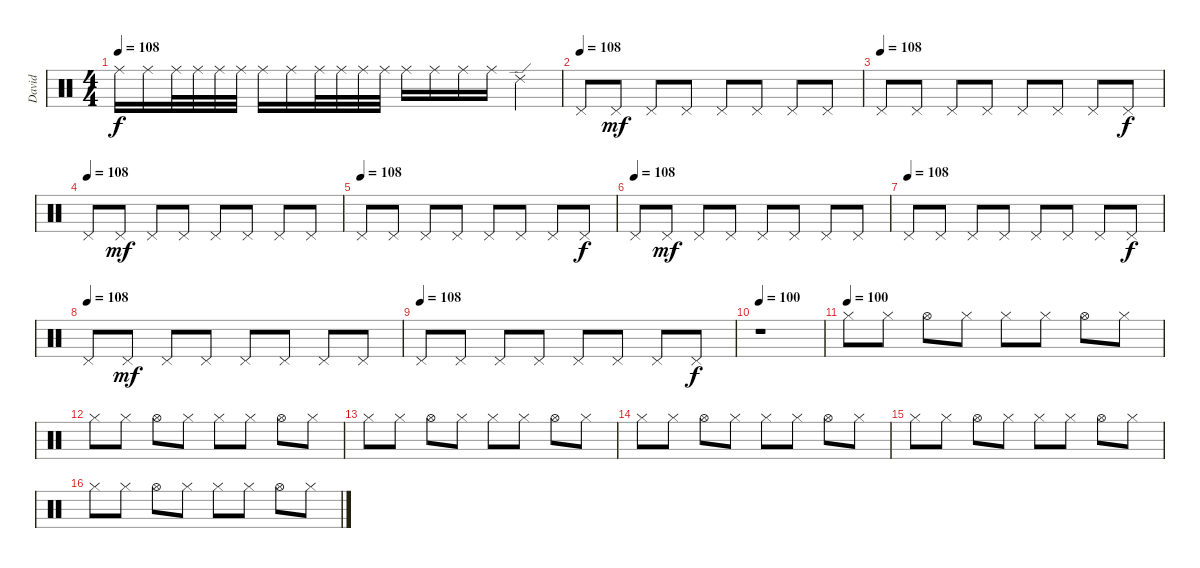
\track ("David" "David") {instrument percussion}
\staff {score}
\articulation defaults
\ts (4 4)
\tempo 108
\clef neutral
\ks c "Ride (middle)".16{dy f} "Ride (middle)".16 "Ride (middle)".32 "Ride (middle)".32 "Ride (middle)".32 "Ride (middle)".32 "Ride (middle)".16 "Ride (middle)".16 "Ride (middle)".32 "Ride (middle)".32 "Ride (middle)".32 "Ride (middle)".32 "Ride (middle)".16 "Ride (middle)".16 "Ride (middle)".16 "Ride (middle)".16 "Ride (edge) 2".4
|
\tempo (108)
"Pedal Hi-Hat (hit)".8 "Pedal Hi-Hat (hit)".8{dy mf} "Pedal Hi-Hat (hit)".8 "Pedal Hi-Hat (hit)".8 "Pedal Hi-Hat (hit)".8 "Pedal Hi-Hat (hit)".8 "Pedal Hi-Hat (hit)".8 "Pedal Hi-Hat (hit)".8 |
\tempo (108)
"Pedal Hi-Hat (hit)".8 "Pedal Hi-Hat (hit)".8 "Pedal Hi-Hat (hit)".8 "Pedal Hi-Hat (hit)".8 "Pedal Hi-Hat (hit)".8 "Pedal Hi-Hat (hit)".8 "Pedal Hi-Hat (hit)".8 "Pedal Hi-Hat (hit)".8{dy f} |
\tempo (108)
"Pedal Hi-Hat (hit)".8 "Pedal Hi-Hat (hit)".8{dy mf} "Pedal Hi-Hat (hit)".8 "Pedal Hi-Hat (hit)".8 "Pedal Hi-Hat (hit)".8 "Pedal Hi-Hat (hit)".8 "Pedal Hi-Hat (hit)".8 "Pedal Hi-Hat (hit)".8 |
\tempo (108)
"Pedal Hi-Hat (hit)".8 "Pedal Hi-Hat (hit)".8 "Pedal Hi-Hat (hit)".8 "Pedal Hi-Hat (hit)".8 "Pedal Hi-Hat (hit)".8 "Pedal Hi-Hat (hit)".8 "Pedal Hi-Hat (hit)".8 "Pedal Hi-Hat (hit)".8{dy f} |
\tempo (108)
"Pedal Hi-Hat (hit)".8 "Pedal Hi-Hat (hit)".8{dy mf} "Pedal Hi-Hat (hit)".8 "Pedal Hi-Hat (hit)".8 "Pedal Hi-Hat (hit)".8 "Pedal Hi-Hat (hit)".8 "Pedal Hi-Hat (hit)".8 "Pedal Hi-Hat (hit)".8 |
\tempo (108)
"Pedal Hi-Hat (hit)".8 "Pedal Hi-Hat (hit)".8 "Pedal Hi-Hat (hit)".8 "Pedal Hi-Hat (hit)".8 "Pedal Hi-Hat (hit)".8 "Pedal Hi-Hat (hit)".8 "Pedal Hi-Hat (hit)".8 "Pedal Hi-Hat (hit)".8{dy f} |
\tempo (108)
"Pedal Hi-Hat (hit)".8 "Pedal Hi-Hat (hit)".8{dy mf} "Pedal Hi-Hat (hit)".8 "Pedal Hi-Hat (hit)".8 "Pedal Hi-Hat (hit)".8 "Pedal Hi-Hat (hit)".8 "Pedal Hi-Hat (hit)".8 "Pedal Hi-Hat (hit)".8 |
\tempo (108)
"Pedal Hi-Hat (hit)".8 "Pedal Hi-Hat (hit)".8 "Pedal Hi-Hat (hit)".8 "Pedal Hi-Hat (hit)".8 "Pedal Hi-Hat (hit)".8 "Pedal Hi-Hat (hit)".8 "Pedal Hi-Hat (hit)".8 "Pedal Hi-Hat (hit)".8{dy f} |
\tempo 100
r.1 |
\tempo (100)
"Hi-Hat (closed)".8 "Hi-Hat (closed)".8 "Hi-Hat (open)".8 "Hi-Hat (closed)".8 "Hi-Hat (closed)".8 "Hi-Hat (closed)".8 "Hi-Hat (open)".8 "Hi-Hat (closed)".8 |
"Hi-Hat (closed)".8 "Hi-Hat (closed)".8 "Hi-Hat (open)".8 "Hi-Hat (closed)".8 "Hi-Hat (closed)".8 "Hi-Hat (closed)".8 "Hi-Hat (open)".8 "Hi-Hat (closed)".8 |
"Hi-Hat (closed)".8 "Hi-Hat (closed)".8 "Hi-Hat (open)".8 "Hi-Hat (closed)".8 "Hi-Hat (closed)".8 "Hi-Hat (closed)".8 "Hi-Hat (open)".8 "Hi-Hat (closed)".8 |
"Hi-Hat (closed)".8 "Hi-Hat (closed)".8 "Hi-Hat (open)".8 "Hi-Hat (closed)".8 "Hi-Hat (closed)".8 "Hi-Hat (closed)".8 "Hi-Hat (open)".8 "Hi-Hat (closed)".8 |
"Hi-Hat (closed)".8 "Hi-Hat (closed)".8 "Hi-Hat (open)".8 "Hi-Hat (closed)".8 "Hi-Hat (closed)".8 "Hi-Hat (closed)".8 "Hi-Hat (open)".8 "Hi-Hat (closed)".8 |
"Hi-Hat (closed)".8 "Hi-Hat (closed)".8 "Hi-Hat (open)".8 "Hi-Hat (closed)".8 "Hi-Hat (closed)".8 "Hi-Hat (closed)".8 "Hi-Hat (open)".8 "Hi-Hat (closed)".8
